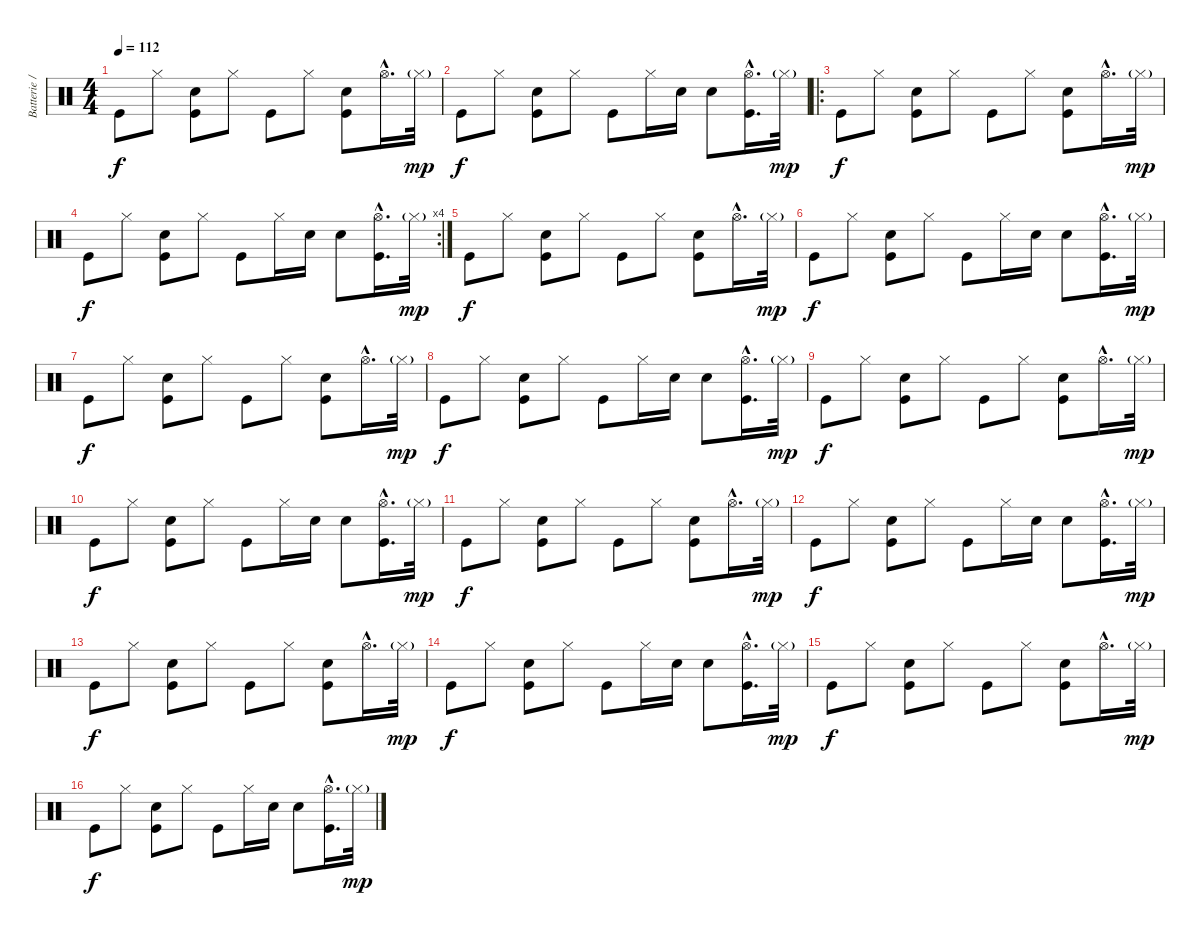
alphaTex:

\track ("Batterie // Jerome Dillon" "Batterie /") {instrument percussion}
\staff {score}
\articulation defaults
\ts (4 4)
\tempo 112
\clef neutral
\ks c "Kick (hit)".8{dy f} "Hi-Hat (closed)".8
("Snare (hit) 2" "Kick (hit)").8 "Hi-Hat (closed)".8 "Kick (hit)".8 "Hi-Hat (closed)".8 ("Snare (hit) 2" "Kick (hit)").8 "Hi-Hat (open)"{hac}.16{d} "Hi-Hat (closed)"{g}.32{dy mp} |
"Kick (hit)".8{dy f} "Hi-Hat (closed)".8 ("Snare (hit) 2" "Kick (hit)").8 "Hi-Hat (closed)".8 "Kick (hit)".8 "Hi-Hat (closed)".16 "Snare (hit) 2".16 "Snare (hit) 2".8 ("Hi-Hat (open)"{hac} "Kick (hit)"{hac}).16{d} "Hi-Hat (closed)"{g}.32{dy mp} |
\ro "Kick (hit)".8{dy f} "Hi-Hat (closed)".8
("Snare (hit) 2" "Kick (hit)").8 "Hi-Hat (closed)".8 "Kick (hit)".8 "Hi-Hat (closed)".8 ("Snare (hit) 2" "Kick (hit)").8 "Hi-Hat (open)"{hac}.16{d} "Hi-Hat (closed)"{g}.32{dy mp} |
\rc 4 "Kick (hit)".8{dy f} "Hi-Hat (closed)".8
("Snare (hit) 2" "Kick (hit)").8 "Hi-Hat (closed)".8 "Kick (hit)".8 "Hi-Hat (closed)".16 "Snare (hit) 2".16 "Snare (hit) 2".8 ("Hi-Hat (open)"{hac} "Kick (hit)"{hac}).16{d} "Hi-Hat (closed)"{g}.32{dy mp} |
"Kick (hit)".8{dy f} "Hi-Hat (closed)".8 ("Snare (hit) 2" "Kick (hit)").8 "Hi-Hat (closed)".8 "Kick (hit)".8 "Hi-Hat (closed)".8 ("Snare (hit) 2" "Kick (hit)").8 "Hi-Hat (open)"{hac}.16{d} "Hi-Hat (closed)"{g}.32{dy mp} |
"Kick (hit)".8{dy f} "Hi-Hat (closed)".8 ("Snare (hit) 2" "Kick (hit)").8 "Hi-Hat (closed)".8 "Kick (hit)".8 "Hi-Hat (closed)".16 "Snare (hit) 2".16 "Snare (hit) 2".8 ("Hi-Hat (open)"{hac} "Kick (hit)"{hac}).16{d} "Hi-Hat (closed)"{g}.32{dy mp} |
"Kick (hit)".8{dy f} "Hi-Hat (closed)".8 ("Snare (hit) 2" "Kick (hit)").8 "Hi-Hat (closed)".8 "Kick (hit)".8 "Hi-Hat (closed)".8 ("Snare (hit) 2" "Kick (hit)").8 "Hi-Hat (open)"{hac}.16{d} "Hi-Hat (closed)"{g}.32{dy mp} |
"Kick (hit)".8{dy f} "Hi-Hat (closed)".8 ("Snare (hit) 2" "Kick (hit)").8 "Hi-Hat (closed)".8 "Kick (hit)".8 "Hi-Hat (closed)".16 "Snare (hit) 2".16 "Snare (hit) 2".8 ("Hi-Hat (open)"{hac} "Kick (hit)"{hac}).16{d} "Hi-Hat (closed)"{g}.32{dy mp} |
"Kick (hit)".8{dy f} "Hi-Hat (closed)".8 ("Snare (hit) 2" "Kick (hit)").8 "Hi-Hat (closed)".8 "Kick (hit)".8 "Hi-Hat (closed)".8 ("Snare (hit) 2" "Kick (hit)").8 "Hi-Hat (open)"{hac}.16{d} "Hi-Hat (closed)"{g}.32{dy mp} |
"Kick (hit)".8{dy f} "Hi-Hat (closed)".8 ("Snare (hit) 2" "Kick (hit)").8 "Hi-Hat (closed)".8 "Kick (hit)".8 "Hi-Hat (closed)".16 "Snare (hit) 2".16 "Snare (hit) 2".8 ("Hi-Hat (open)"{hac} "Kick (hit)"{hac}).16{d} "Hi-Hat (closed)"{g}.32{dy mp} |
"Kick (hit)".8{dy f} "Hi-Hat (closed)".8 ("Snare (hit) 2" "Kick (hit)").8 "Hi-Hat (closed)".8 "Kick (hit)".8 "Hi-Hat (closed)".8 ("Snare (hit) 2" "Kick (hit)").8 "Hi-Hat (open)"{hac}.16{d} "Hi-Hat (closed)"{g}.32{dy mp} |
"Kick (hit)".8{dy f} "Hi-Hat (closed)".8 ("Snare (hit) 2" "Kick (hit)").8 "Hi-Hat (closed)".8 "Kick (hit)".8 "Hi-Hat (closed)".16 "Snare (hit) 2".16 "Snare (hit) 2".8 ("Hi-Hat (open)"{hac} "Kick (hit)"{hac}).16{d} "Hi-Hat (closed)"{g}.32{dy mp} |
"Kick (hit)".8{dy f} "Hi-Hat (closed)".8 ("Snare (hit) 2" "Kick (hit)").8 "Hi-Hat (closed)".8 "Kick (hit)".8 "Hi-Hat (closed)".8 ("Snare (hit) 2" "Kick (hit)").8 "Hi-Hat (open)"{hac}.16{d} "Hi-Hat (closed)"{g}.32{dy mp} |
"Kick (hit)".8{dy f} "Hi-Hat (closed)".8 ("Snare (hit) 2" "Kick (hit)").8 "Hi-Hat (closed)".8 "Kick (hit)".8 "Hi-Hat (closed)".16 "Snare (hit) 2".16 "Snare (hit) 2".8 ("Hi-Hat (open)"{hac} "Kick (hit)"{hac}).16{d} "Hi-Hat (closed)"{g}.32{dy mp} |
"Kick (hit)".8{dy f} "Hi-Hat (closed)".8 ("Snare (hit) 2" "Kick (hit)").8 "Hi-Hat (closed)".8 "Kick (hit)".8 "Hi-Hat (closed)".8 ("Snare (hit) 2" "Kick (hit)").8 "Hi-Hat (open)"{hac}.16{d} "Hi-Hat (closed)"{g}.32{dy mp} |
"Kick (hit)".8{dy f} "Hi-Hat (closed)".8 ("Snare (hit) 2" "Kick (hit)").8 "Hi-Hat (closed)".8 "Kick (hit)".8 "Hi-Hat (closed)".16 "Snare (hit) 2".16 "Snare (hit) 2".8 ("Hi-Hat (open)"{hac} "Kick (hit)"{hac}).16{d} "Hi-Hat (closed)"{g}.32{dy mp}
